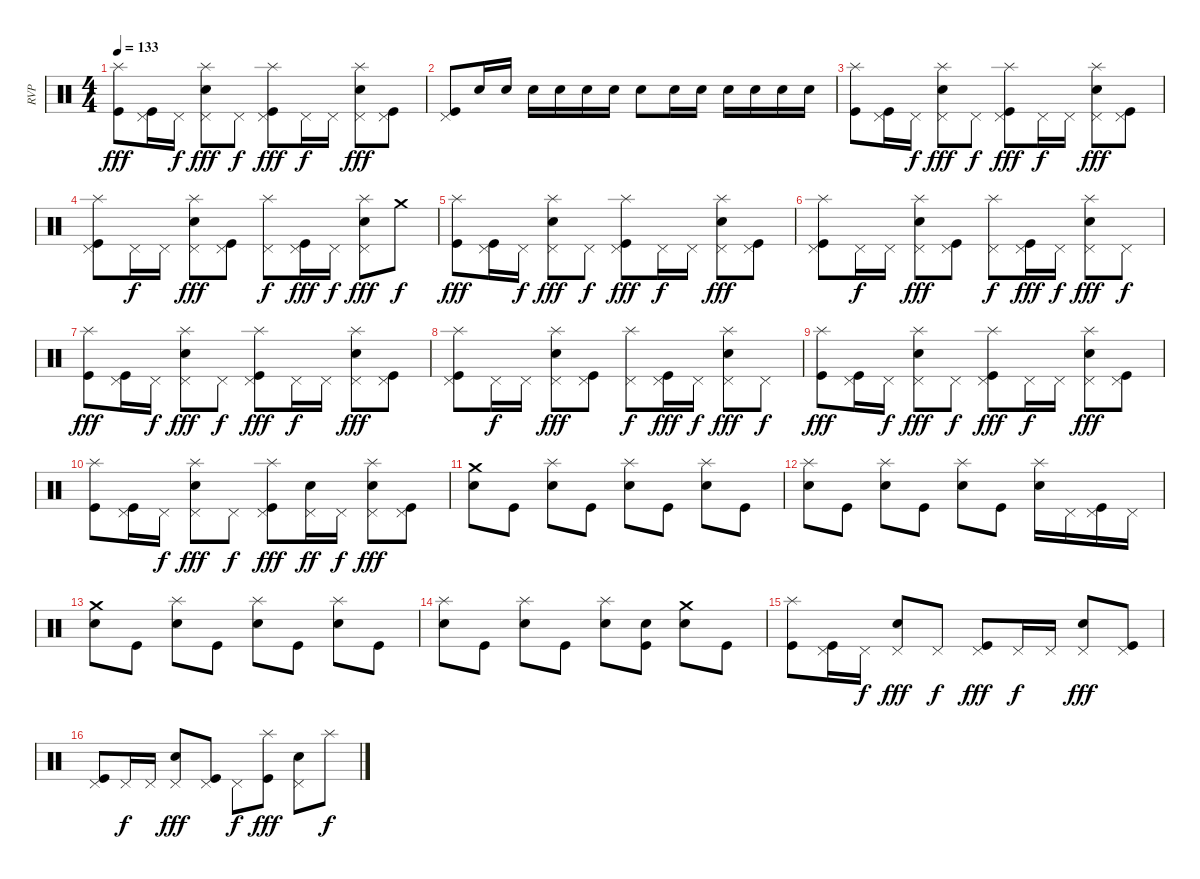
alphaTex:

\track ("RVP" "RVP") {instrument percussion}
\staff {score}
\articulation defaults
\ts (4 4)
\tempo 133
\clef neutral
\ks c
("Splash (hit)" "Kick (hit)").8{txt "" dy fff} ("Pedal Hi-Hat (hit)" "Kick (hit)").16{txt ""} "Pedal Hi-Hat (hit)".16{txt "" dy f} ("Snare (hit) 2" "Pedal Hi-Hat (hit)" "Splash (hit)").8{txt "" dy fff} "Pedal Hi-Hat (hit)".8{txt "" dy f} ("Pedal Hi-Hat (hit)" "Splash (hit)" "Kick (hit)").8{txt "" dy fff} "Pedal Hi-Hat (hit)".16{txt "" dy f} "Pedal Hi-Hat (hit)".16{txt ""} ("Snare (hit) 2" "Pedal Hi-Hat (hit)" "Splash (hit)").8{txt "" dy fff} ("Pedal Hi-Hat (hit)" "Kick (hit)").8{txt ""} |
("Pedal Hi-Hat (hit)" "Kick (hit)").8{txt ""} "Snare (hit) 2".16{txt ""} "Snare (hit) 2".16{txt ""} "Snare (hit) 2".16{txt ""} "Snare (hit) 2".16{txt ""} "Snare (hit) 2".16{txt ""} "Snare (hit) 2".16{txt ""} "Snare (hit) 2".8{txt ""} "Snare (hit) 2".16{txt ""} "Snare (hit) 2".16{txt ""} "Snare (hit) 2".16{txt ""} "Snare (hit) 2".16{txt ""} "Snare (hit) 2".16{txt ""} "Snare (hit) 2".16{txt ""} |
("Splash (hit)" "Kick (hit)").8{txt ""} ("Pedal Hi-Hat (hit)" "Kick (hit)").16{txt ""} "Pedal Hi-Hat (hit)".16{txt "" dy f} ("Snare (hit) 2" "Pedal Hi-Hat (hit)" "Splash (hit)").8{txt "" dy fff} "Pedal Hi-Hat (hit)".8{txt "" dy f} ("Pedal Hi-Hat (hit)" "Splash (hit)" "Kick (hit)").8{txt "" dy fff} "Pedal Hi-Hat (hit)".16{txt "" dy f} "Pedal Hi-Hat (hit)".16{txt ""} ("Snare (hit) 2" "Pedal Hi-Hat (hit)" "Splash (hit)").8{txt "" dy fff} ("Pedal Hi-Hat (hit)" "Kick (hit)").8{txt ""} |
("Pedal Hi-Hat (hit)" "Splash (hit)" "Kick (hit)").8{txt ""} "Pedal Hi-Hat (hit)".16{txt "" dy f} "Pedal Hi-Hat (hit)".16{txt ""} ("Snare (hit) 2" "Pedal Hi-Hat (hit)" "Splash (hit)").8{txt "" dy fff} ("Pedal Hi-Hat (hit)" "Kick (hit)").8{txt ""} ("Pedal Hi-Hat (hit)" "Splash (hit)").8{txt "" dy f} ("Pedal Hi-Hat (hit)" "Kick (hit)").16{txt "" dy fff} "Pedal Hi-Hat (hit)".16{txt "" dy f} ("Snare (hit) 2" "Pedal Hi-Hat (hit)" "Splash (hit)").8{txt "" dy fff} "Crash medium (hit)".8{txt "" dy f} |
("Splash (hit)" "Kick (hit)").8{txt "" dy fff} ("Pedal Hi-Hat (hit)" "Kick (hit)").16{txt ""} "Pedal Hi-Hat (hit)".16{txt "" dy f} ("Snare (hit) 2" "Pedal Hi-Hat (hit)" "Splash (hit)").8{txt "" dy fff} "Pedal Hi-Hat (hit)".8{txt "" dy f} ("Pedal Hi-Hat (hit)" "Splash (hit)" "Kick (hit)").8{txt "" dy fff} "Pedal Hi-Hat (hit)".16{txt "" dy f} "Pedal Hi-Hat (hit)".16{txt ""} ("Snare (hit) 2" "Pedal Hi-Hat (hit)" "Splash (hit)").8{txt "" dy fff} ("Pedal Hi-Hat (hit)" "Kick (hit)").8{txt ""} |
("Pedal Hi-Hat (hit)" "Splash (hit)" "Kick (hit)").8{txt ""} "Pedal Hi-Hat (hit)".16{txt "" dy f} "Pedal Hi-Hat (hit)".16{txt ""} ("Snare (hit) 2" "Pedal Hi-Hat (hit)" "Splash (hit)").8{txt "" dy fff} ("Pedal Hi-Hat (hit)" "Kick (hit)").8{txt ""} ("Pedal Hi-Hat (hit)" "Splash (hit)").8{txt "" dy f} ("Pedal Hi-Hat (hit)" "Kick (hit)").16{txt "" dy fff} "Pedal Hi-Hat (hit)".16{txt "" dy f} ("Snare (hit) 2" "Pedal Hi-Hat (hit)" "Splash (hit)").8{txt "" dy fff} "Pedal Hi-Hat (hit)".8{txt "" dy f} |
("Splash (hit)" "Kick (hit)").8{txt "" dy fff} ("Pedal Hi-Hat (hit)" "Kick (hit)").16{txt ""} "Pedal Hi-Hat (hit)".16{txt "" dy f} ("Snare (hit) 2" "Pedal Hi-Hat (hit)" "Splash (hit)").8{txt "" dy fff} "Pedal Hi-Hat (hit)".8{txt "" dy f} ("Pedal Hi-Hat (hit)" "Splash (hit)" "Kick (hit)").8{txt "" dy fff} "Pedal Hi-Hat (hit)".16{txt "" dy f} "Pedal Hi-Hat (hit)".16{txt ""} ("Snare (hit) 2" "Pedal Hi-Hat (hit)" "Splash (hit)").8{txt "" dy fff} ("Pedal Hi-Hat (hit)" "Kick (hit)").8{txt ""} |
("Pedal Hi-Hat (hit)" "Splash (hit)" "Kick (hit)").8{txt ""} "Pedal Hi-Hat (hit)".16{txt "" dy f} "Pedal Hi-Hat (hit)".16{txt ""} ("Snare (hit) 2" "Pedal Hi-Hat (hit)" "Splash (hit)").8{txt "" dy fff} ("Pedal Hi-Hat (hit)" "Kick (hit)").8{txt ""} ("Pedal Hi-Hat (hit)" "Splash (hit)").8{txt "" dy f} ("Pedal Hi-Hat (hit)" "Kick (hit)").16{txt "" dy fff} "Pedal Hi-Hat (hit)".16{txt "" dy f} ("Snare (hit) 2" "Pedal Hi-Hat (hit)" "Splash (hit)").8{txt "" dy fff} "Pedal Hi-Hat (hit)".8{txt "" dy f} |
("Splash (hit)" "Kick (hit)").8{txt "" dy fff} ("Pedal Hi-Hat (hit)" "Kick (hit)").16{txt ""} "Pedal Hi-Hat (hit)".16{txt "" dy f} ("Snare (hit) 2" "Pedal Hi-Hat (hit)" "Splash (hit)").8{txt "" dy fff} "Pedal Hi-Hat (hit)".8{txt "" dy f} ("Pedal Hi-Hat (hit)" "Splash (hit)" "Kick (hit)").8{txt "" dy fff} "Pedal Hi-Hat (hit)".16{txt "" dy f} "Pedal Hi-Hat (hit)".16{txt ""} ("Snare (hit) 2" "Pedal Hi-Hat (hit)" "Splash (hit)").8{txt "" dy fff} ("Pedal Hi-Hat (hit)" "Kick (hit)").8{txt ""} |
("Splash (hit)" "Kick (hit)").8{txt ""} ("Pedal Hi-Hat (hit)" "Kick (hit)").16{txt ""} "Pedal Hi-Hat (hit)".16{txt "" dy f} ("Snare (hit) 2" "Pedal Hi-Hat (hit)" "Splash (hit)").8{txt "" dy fff} "Pedal Hi-Hat (hit)".8{txt "" dy f} ("Pedal Hi-Hat (hit)" "Splash (hit)" "Kick (hit)").8{txt "" dy fff} ("Snare (hit) 2" "Pedal Hi-Hat (hit)").16{txt "" dy ff} "Pedal Hi-Hat (hit)".16{txt "" dy f} ("Snare (hit) 2" "Pedal Hi-Hat (hit)" "Splash (hit)").8{txt "" dy fff} ("Pedal Hi-Hat (hit)" "Kick (hit)").8{txt ""} |
("Snare (hit) 2" "Crash medium (hit)").8{txt ""} "Kick (hit)".8{txt ""} ("Snare (hit) 2" "Splash (hit)").8{txt ""} "Kick (hit)".8{txt ""} ("Snare (hit) 2" "Splash (hit)").8{txt ""} "Kick (hit)".8{txt ""} ("Snare (hit) 2" "Splash (hit)").8{txt ""} "Kick (hit)".8{txt ""} |
("Snare (hit) 2" "Splash (hit)").8{txt ""} "Kick (hit)".8{txt ""} ("Snare (hit) 2" "Splash (hit)").8{txt ""} "Kick (hit)".8{txt ""} ("Snare (hit) 2" "Splash (hit)").8{txt ""} "Kick (hit)".8{txt ""} ("Snare (hit) 2" "Splash (hit)").16{txt ""} "Pedal Hi-Hat (hit)".16{txt ""} ("Pedal Hi-Hat (hit)" "Kick (hit)").16{txt ""} "Pedal Hi-Hat (hit)".16{txt ""} |
("Snare (hit) 2" "Crash medium (hit)").8{txt ""} "Kick (hit)".8{txt ""} ("Snare (hit) 2" "Splash (hit)").8{txt ""} "Kick (hit)".8{txt ""} ("Snare (hit) 2" "Splash (hit)").8{txt ""} "Kick (hit)".8{txt ""} ("Snare (hit) 2" "Splash (hit)").8{txt ""} "Kick (hit)".8{txt ""} |
("Snare (hit) 2" "Splash (hit)").8{txt ""} "Kick (hit)".8{txt ""} ("Snare (hit) 2" "Splash (hit)").8{txt ""} "Kick (hit)".8{txt ""} ("Snare (hit) 2" "Splash (hit)").8{txt ""} ("Snare (hit) 2" "Kick (hit)").8{txt ""} ("Snare (hit) 2" "Crash medium (hit)").8{txt ""} "Kick (hit)".8{txt ""} |
("Splash (hit)" "Kick (hit)").8{txt ""} ("Pedal Hi-Hat (hit)" "Kick (hit)").16{txt ""} "Pedal Hi-Hat (hit)".16{txt "" dy f} ("Snare (hit) 2" "Pedal Hi-Hat (hit)").8{txt "" dy fff} "Pedal Hi-Hat (hit)".8{txt "" dy f} ("Pedal Hi-Hat (hit)" "Kick (hit)").8{txt "" dy fff} "Pedal Hi-Hat (hit)".16{txt "" dy f} "Pedal Hi-Hat (hit)".16{txt ""} ("Snare (hit) 2" "Pedal Hi-Hat (hit)").8{txt "" dy fff} ("Pedal Hi-Hat (hit)" "Kick (hit)").8{txt ""} |
("Pedal Hi-Hat (hit)" "Kick (hit)").8{txt ""} "Pedal Hi-Hat (hit)".16{txt "" dy f} "Pedal Hi-Hat (hit)".16{txt ""} ("Snare (hit) 2" "Pedal Hi-Hat (hit)").8{txt "" dy fff} ("Pedal Hi-Hat (hit)" "Kick (hit)").8{txt ""} "Pedal Hi-Hat (hit)".8{txt "" dy f} ("Splash (hit)" "Kick (hit)").8{txt "" dy fff} ("Snare (hit) 2" "Pedal Hi-Hat (hit)").8{txt ""} "Splash (hit)".8{txt "" dy f}
